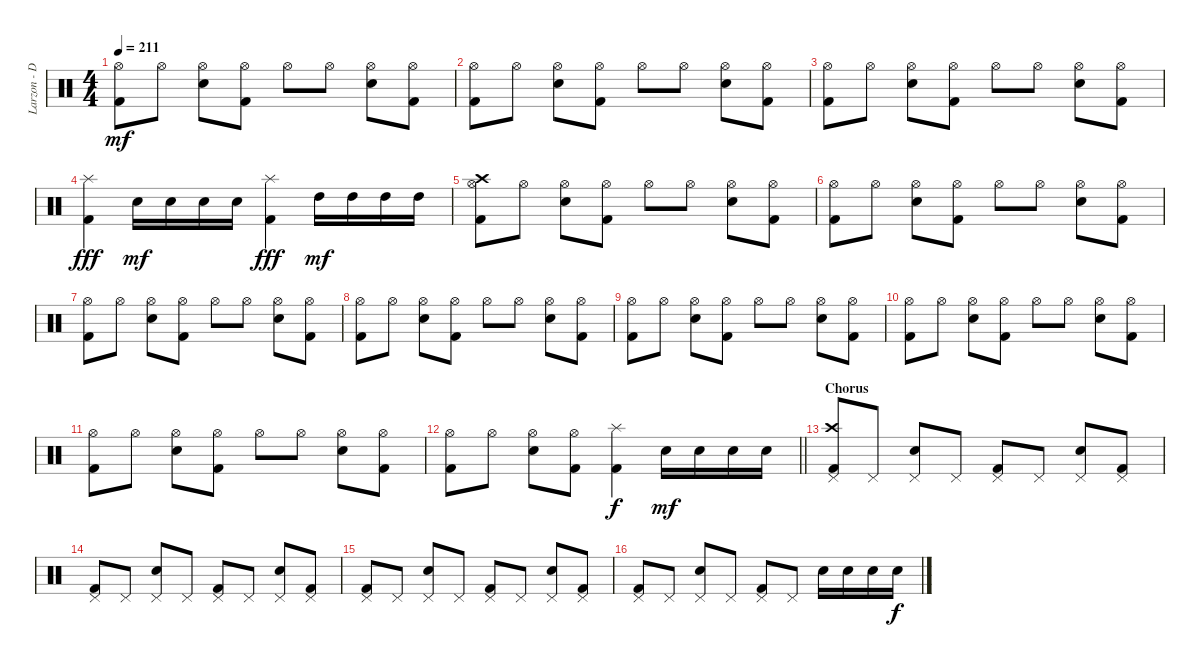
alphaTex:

\track ("Larzon - Drums" "Larzon - D") {instrument percussion}
\staff {score}
\articulation defaults
\ts (4 4)
\tempo 211
\clef neutral
\ks c
("Kick (hit) 2" "Hi-Hat (open)").8{dy mf} "Hi-Hat (open)".8 ("Snare (hit) 2" "Hi-Hat (open)").8 ("Kick (hit) 2" "Hi-Hat (open)").8 "Hi-Hat (open)".8 "Hi-Hat (open)".8 ("Snare (hit) 2" "Hi-Hat (open)").8 ("Kick (hit) 2" "Hi-Hat (open)").8 |
("Kick (hit) 2" "Hi-Hat (open)").8 "Hi-Hat (open)".8 ("Snare (hit) 2" "Hi-Hat (open)").8 ("Kick (hit) 2" "Hi-Hat (open)").8 "Hi-Hat (open)".8 "Hi-Hat (open)".8 ("Snare (hit) 2" "Hi-Hat (open)").8 ("Kick (hit) 2" "Hi-Hat (open)").8 |
("Kick (hit) 2" "Hi-Hat (open)").8 "Hi-Hat (open)".8 ("Snare (hit) 2" "Hi-Hat (open)").8 ("Kick (hit) 2" "Hi-Hat (open)").8 "Hi-Hat (open)".8 "Hi-Hat (open)".8 ("Snare (hit) 2" "Hi-Hat (open)").8 ("Kick (hit) 2" "Hi-Hat (open)").8 |
("Splash (hit)" "Kick (hit) 2").4{dy fff} "Snare (hit) 2".16{dy mf} "Snare (hit) 2".16 "Snare (hit) 2".16 "Snare (hit) 2".16 ("Splash (hit)" "Kick (hit) 2").4{dy fff} "High Tom (hit)".16{dy mf} "High Tom (hit)".16 "High Tom (hit)".16 "High Tom (hit)".16 |
("Kick (hit) 2" "Crash high (hit)" "Hi-Hat (open)").8 "Hi-Hat (open)".8 ("Snare (hit) 2" "Hi-Hat (open)").8 ("Kick (hit) 2" "Hi-Hat (open)").8 "Hi-Hat (open)".8 "Hi-Hat (open)".8 ("Snare (hit) 2" "Hi-Hat (open)").8 ("Kick (hit) 2" "Hi-Hat (open)").8 |
("Kick (hit) 2" "Hi-Hat (open)").8 "Hi-Hat (open)".8 ("Snare (hit) 2" "Hi-Hat (open)").8 ("Kick (hit) 2" "Hi-Hat (open)").8 "Hi-Hat (open)".8 "Hi-Hat (open)".8 ("Snare (hit) 2" "Hi-Hat (open)").8 ("Kick (hit) 2" "Hi-Hat (open)").8 |
("Kick (hit) 2" "Hi-Hat (open)").8 "Hi-Hat (open)".8 ("Snare (hit) 2" "Hi-Hat (open)").8 ("Kick (hit) 2" "Hi-Hat (open)").8 "Hi-Hat (open)".8 "Hi-Hat (open)".8 ("Snare (hit) 2" "Hi-Hat (open)").8 ("Kick (hit) 2" "Hi-Hat (open)").8 |
("Kick (hit) 2" "Hi-Hat (open)").8 "Hi-Hat (open)".8 ("Snare (hit) 2" "Hi-Hat (open)").8 ("Kick (hit) 2" "Hi-Hat (open)").8 "Hi-Hat (open)".8 "Hi-Hat (open)".8 ("Snare (hit) 2" "Hi-Hat (open)").8 ("Kick (hit) 2" "Hi-Hat (open)").8 |
("Kick (hit) 2" "Hi-Hat (open)").8 "Hi-Hat (open)".8 ("Snare (hit) 2" "Hi-Hat (open)").8 ("Kick (hit) 2" "Hi-Hat (open)").8 "Hi-Hat (open)".8 "Hi-Hat (open)".8 ("Snare (hit) 2" "Hi-Hat (open)").8 ("Kick (hit) 2" "Hi-Hat (open)").8 |
("Kick (hit) 2" "Hi-Hat (open)").8 "Hi-Hat (open)".8 ("Snare (hit) 2" "Hi-Hat (open)").8 ("Kick (hit) 2" "Hi-Hat (open)").8 "Hi-Hat (open)".8 "Hi-Hat (open)".8 ("Snare (hit) 2" "Hi-Hat (open)").8 ("Kick (hit) 2" "Hi-Hat (open)").8 |
("Kick (hit) 2" "Hi-Hat (open)").8 "Hi-Hat (open)".8 ("Snare (hit) 2" "Hi-Hat (open)").8 ("Kick (hit) 2" "Hi-Hat (open)").8 "Hi-Hat (open)".8 "Hi-Hat (open)".8 ("Snare (hit) 2" "Hi-Hat (open)").8 ("Kick (hit) 2" "Hi-Hat (open)").8 |
\barLineRight lightlight
("Kick (hit) 2" "Hi-Hat (open)").8 "Hi-Hat (open)".8 ("Snare (hit) 2" "Hi-Hat (open)").8 ("Kick (hit) 2" "Hi-Hat (open)").8 ("Splash (hit)" "Kick (hit) 2").4{dy f} "Snare (hit) 2".16{dy mf} "Snare (hit) 2".16 "Snare (hit) 2".16 "Snare (hit) 2".16 |
\section ("" "Chorus")
("Kick (hit) 2" "Crash high (hit)" "Pedal Hi-Hat (hit)").8 "Pedal Hi-Hat (hit)".8 ("Snare (hit) 2" "Pedal Hi-Hat (hit)").8 "Pedal Hi-Hat (hit)".8 ("Kick (hit) 2" "Pedal Hi-Hat (hit)").8 "Pedal Hi-Hat (hit)".8 ("Snare (hit) 2" "Pedal Hi-Hat (hit)").8 ("Kick (hit) 2" "Pedal Hi-Hat (hit)").8 |
("Kick (hit) 2" "Pedal Hi-Hat (hit)").8 "Pedal Hi-Hat (hit)".8 ("Snare (hit) 2" "Pedal Hi-Hat (hit)").8 "Pedal Hi-Hat (hit)".8 ("Kick (hit) 2" "Pedal Hi-Hat (hit)").8 "Pedal Hi-Hat (hit)".8 ("Snare (hit) 2" "Pedal Hi-Hat (hit)").8 ("Kick (hit) 2" "Pedal Hi-Hat (hit)").8 |
("Kick (hit) 2" "Pedal Hi-Hat (hit)").8 "Pedal Hi-Hat (hit)".8 ("Snare (hit) 2" "Pedal Hi-Hat (hit)").8 "Pedal Hi-Hat (hit)".8 ("Kick (hit) 2" "Pedal Hi-Hat (hit)").8 "Pedal Hi-Hat (hit)".8 ("Snare (hit) 2" "Pedal Hi-Hat (hit)").8 ("Kick (hit) 2" "Pedal Hi-Hat (hit)").8 |
("Kick (hit) 2" "Pedal Hi-Hat (hit)").8 "Pedal Hi-Hat (hit)".8 ("Snare (hit) 2" "Pedal Hi-Hat (hit)").8 "Pedal Hi-Hat (hit)".8 ("Kick (hit) 2" "Pedal Hi-Hat (hit)").8 "Pedal Hi-Hat (hit)".8 "Snare (hit) 2".16 "Snare (hit) 2".16 "Snare (hit) 2".16 "Snare (hit) 2".16{dy f}
